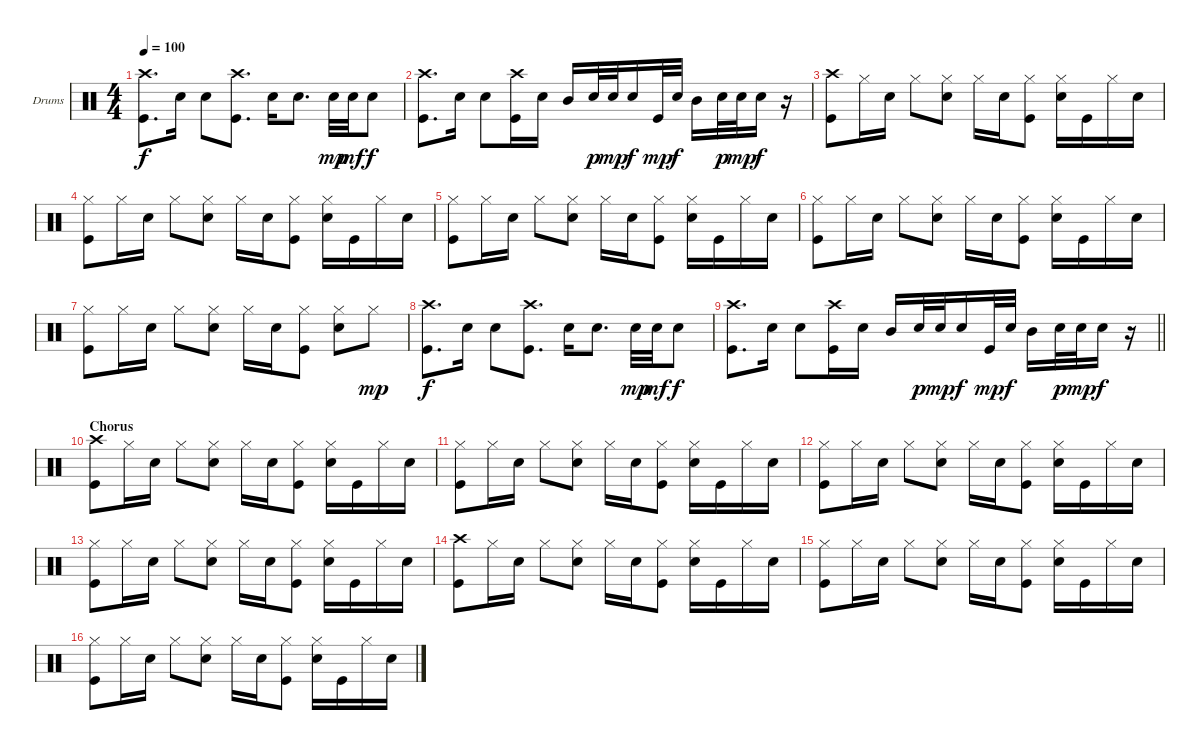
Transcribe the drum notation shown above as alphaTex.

\bracketExtendMode groupsimilarinstruments
\firstSystemTrackNameOrientation horizontal
\otherSystemsTrackNameOrientation horizontal
\track ("Fabrizio" "Drums") {instrument percussion}
\staff {score}
\articulation defaults
\ts (4 4)
\tempo 100
\clef neutral
\ks c
("Crash high (hit)" "Kick (hit)").8{d dy f} "Snare (hit) 2".16 "Snare (hit) 2".8 ("Crash high (hit)" "Kick (hit)").8{d} "Snare (hit) 2".16 "Snare (hit) 2".8{d} "Snare (hit) 2".32{dy mp} "Snare (hit) 2".32{dy mf} "Snare (hit) 2".8{dy f} |
("Crash high (hit)" "Kick (hit)").8{d} "Snare (hit) 2".16 "Snare (hit) 2".8 ("Crash high (hit)" "Kick (hit)").16 "Snare (hit) 2".16 "Mid Tom (hit)".16 "Snare (hit) 2".32{dy p} "Snare (hit) 2".32{dy mp} "Snare (hit) 2".16{dy f} "Kick (hit)".32{dy mp} "Snare (hit) 2".32{dy f} "Mid Tom (hit)".16 "Snare (hit) 2".32{dy p} "Snare (hit) 2".32{dy mp} "Snare (hit) 2".16{dy f} r.16 |
("Crash high (hit)" "Kick (hit)").8 "Hi-Hat (closed)".16 "Snare (hit) 2".16 "Hi-Hat (closed)".8 ("Hi-Hat (closed)" "Snare (hit) 2").8 "Hi-Hat (closed)".16 "Snare (hit) 2".16 ("Hi-Hat (closed)" "Kick (hit)").8 ("Hi-Hat (closed)" "Snare (hit) 2").16 "Kick (hit)".16 "Hi-Hat (closed)".16 "Snare (hit) 2".16 |
("Hi-Hat (closed)" "Kick (hit)").8 "Hi-Hat (closed)".16 "Snare (hit) 2".16 "Hi-Hat (closed)".8 ("Hi-Hat (closed)" "Snare (hit) 2").8 "Hi-Hat (closed)".16 "Snare (hit) 2".16 ("Hi-Hat (closed)" "Kick (hit)").8 ("Hi-Hat (closed)" "Snare (hit) 2").16 "Kick (hit)".16 "Hi-Hat (closed)".16 "Snare (hit) 2".16 |
("Hi-Hat (closed)" "Kick (hit)").8 "Hi-Hat (closed)".16 "Snare (hit) 2".16 "Hi-Hat (closed)".8 ("Hi-Hat (closed)" "Snare (hit) 2").8 "Hi-Hat (closed)".16 "Snare (hit) 2".16 ("Hi-Hat (closed)" "Kick (hit)").8 ("Hi-Hat (closed)" "Snare (hit) 2").16 "Kick (hit)".16 "Hi-Hat (closed)".16 "Snare (hit) 2".16 |
("Hi-Hat (closed)" "Kick (hit)").8 "Hi-Hat (closed)".16 "Snare (hit) 2".16 "Hi-Hat (closed)".8 ("Hi-Hat (closed)" "Snare (hit) 2").8 "Hi-Hat (closed)".16 "Snare (hit) 2".16 ("Hi-Hat (closed)" "Kick (hit)").8 ("Hi-Hat (closed)" "Snare (hit) 2").16 "Kick (hit)".16 "Hi-Hat (closed)".16 "Snare (hit) 2".16 |
("Hi-Hat (closed)" "Kick (hit)").8 "Hi-Hat (closed)".16 "Snare (hit) 2".16 "Hi-Hat (closed)".8 ("Hi-Hat (closed)" "Snare (hit) 2").8 "Hi-Hat (closed)".16 "Snare (hit) 2".16 ("Hi-Hat (closed)" "Kick (hit)").8 ("Hi-Hat (closed)" "Snare (hit) 2").8 "Hi-Hat (closed)".8{dy mp} |
("Crash high (hit)" "Kick (hit)").8{d dy f} "Snare (hit) 2".16 "Snare (hit) 2".8 ("Crash high (hit)" "Kick (hit)").8{d} "Snare (hit) 2".16 "Snare (hit) 2".8{d} "Snare (hit) 2".32{dy mp} "Snare (hit) 2".32{dy mf} "Snare (hit) 2".8{dy f} |
\barLineRight lightlight
("Crash high (hit)" "Kick (hit)").8{d} "Snare (hit) 2".16 "Snare (hit) 2".8 ("Crash high (hit)" "Kick (hit)").16 "Snare (hit) 2".16 "Mid Tom (hit)".16 "Snare (hit) 2".32{dy p} "Snare (hit) 2".32{dy mp} "Snare (hit) 2".16{dy f} "Kick (hit)".32{dy mp} "Snare (hit) 2".32{dy f} "Mid Tom (hit)".16 "Snare (hit) 2".32{dy p} "Snare (hit) 2".32{dy mp} "Snare (hit) 2".16{dy f} r.16 |
\section ("" "Chorus")
("Crash high (hit)" "Kick (hit)").8 "Hi-Hat (closed)".16 "Snare (hit) 2".16 "Hi-Hat (closed)".8 ("Hi-Hat (closed)" "Snare (hit) 2").8 "Hi-Hat (closed)".16 "Snare (hit) 2".16 ("Hi-Hat (closed)" "Kick (hit)").8 ("Hi-Hat (closed)" "Snare (hit) 2").16 "Kick (hit)".16 "Hi-Hat (closed)".16 "Snare (hit) 2".16 |
("Hi-Hat (closed)" "Kick (hit)").8 "Hi-Hat (closed)".16 "Snare (hit) 2".16 "Hi-Hat (closed)".8 ("Hi-Hat (closed)" "Snare (hit) 2").8 "Hi-Hat (closed)".16 "Snare (hit) 2".16 ("Hi-Hat (closed)" "Kick (hit)").8 ("Hi-Hat (closed)" "Snare (hit) 2").16 "Kick (hit)".16 "Hi-Hat (closed)".16 "Snare (hit) 2".16 |
("Hi-Hat (closed)" "Kick (hit)").8 "Hi-Hat (closed)".16 "Snare (hit) 2".16 "Hi-Hat (closed)".8 ("Hi-Hat (closed)" "Snare (hit) 2").8 "Hi-Hat (closed)".16 "Snare (hit) 2".16 ("Hi-Hat (closed)" "Kick (hit)").8 ("Hi-Hat (closed)" "Snare (hit) 2").16 "Kick (hit)".16 "Hi-Hat (closed)".16 "Snare (hit) 2".16 |
("Hi-Hat (closed)" "Kick (hit)").8 "Hi-Hat (closed)".16 "Snare (hit) 2".16 "Hi-Hat (closed)".8 ("Hi-Hat (closed)" "Snare (hit) 2").8 "Hi-Hat (closed)".16 "Snare (hit) 2".16 ("Hi-Hat (closed)" "Kick (hit)").8 ("Hi-Hat (closed)" "Snare (hit) 2").16 "Kick (hit)".16 "Hi-Hat (closed)".16 "Snare (hit) 2".16 |
("Crash high (hit)" "Kick (hit)").8 "Hi-Hat (closed)".16 "Snare (hit) 2".16 "Hi-Hat (closed)".8 ("Hi-Hat (closed)" "Snare (hit) 2").8 "Hi-Hat (closed)".16 "Snare (hit) 2".16 ("Hi-Hat (closed)" "Kick (hit)").8 ("Hi-Hat (closed)" "Snare (hit) 2").16 "Kick (hit)".16 "Hi-Hat (closed)".16 "Snare (hit) 2".16 |
("Hi-Hat (closed)" "Kick (hit)").8 "Hi-Hat (closed)".16 "Snare (hit) 2".16 "Hi-Hat (closed)".8 ("Hi-Hat (closed)" "Snare (hit) 2").8 "Hi-Hat (closed)".16 "Snare (hit) 2".16 ("Hi-Hat (closed)" "Kick (hit)").8 ("Hi-Hat (closed)" "Snare (hit) 2").16 "Kick (hit)".16 "Hi-Hat (closed)".16 "Snare (hit) 2".16 |
("Hi-Hat (closed)" "Kick (hit)").8 "Hi-Hat (closed)".16 "Snare (hit) 2".16 "Hi-Hat (closed)".8 ("Hi-Hat (closed)" "Snare (hit) 2").8 "Hi-Hat (closed)".16 "Snare (hit) 2".16 ("Hi-Hat (closed)" "Kick (hit)").8 ("Hi-Hat (closed)" "Snare (hit) 2").16 "Kick (hit)".16 "Hi-Hat (closed)".16 "Snare (hit) 2".16
